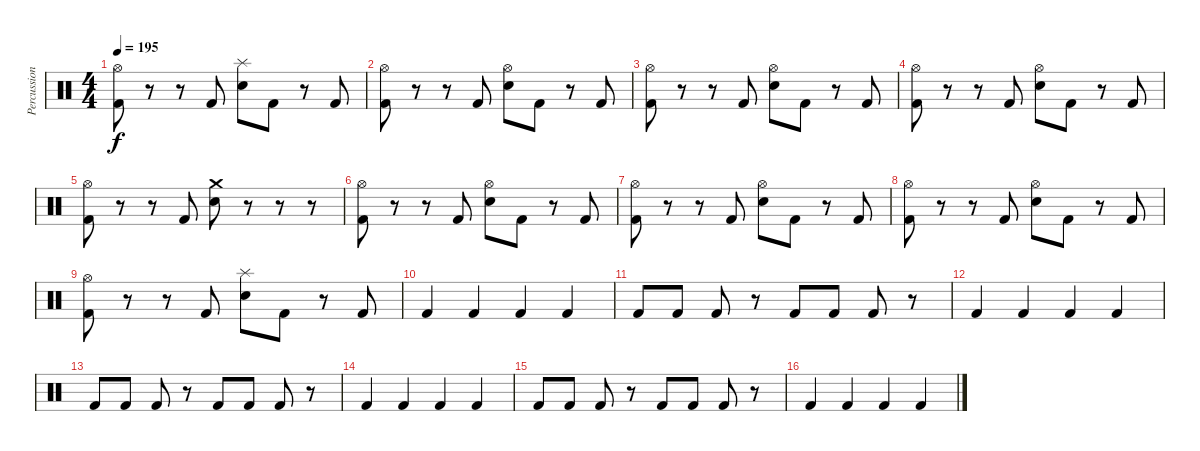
\track ("Percussion" "Percussion") {instrument percussion}
\staff {score}
\articulation defaults
\ts (4 4)
\tempo 195
\clef neutral
\ks c
("Hi-Hat (open)" "Kick (hit) 2").8{dy f} r.8 r.8 "Kick (hit) 2".8 ("Splash (hit)" "Snare (hit) 2").8 "Kick (hit) 2".8 r.8 "Kick (hit) 2".8 |
("Hi-Hat (open)" "Kick (hit) 2").8 r.8 r.8 "Kick (hit) 2".8 ("Hi-Hat (open)" "Snare (hit) 2").8 "Kick (hit) 2".8 r.8 "Kick (hit) 2".8 |
("Hi-Hat (open)" "Kick (hit) 2").8 r.8 r.8 "Kick (hit) 2".8 ("Hi-Hat (open)" "Snare (hit) 2").8 "Kick (hit) 2".8 r.8 "Kick (hit) 2".8 |
("Hi-Hat (open)" "Kick (hit) 2").8 r.8 r.8 "Kick (hit) 2".8 ("Hi-Hat (open)" "Snare (hit) 2").8 "Kick (hit) 2".8 r.8 "Kick (hit) 2".8 |
("Hi-Hat (open)" "Kick (hit) 2").8 r.8 r.8 "Kick (hit) 2".8 ("Crash medium (hit)" "Snare (hit) 2").8 r.8 r.8 r.8 |
("Hi-Hat (open)" "Kick (hit) 2").8 r.8 r.8 "Kick (hit) 2".8 ("Hi-Hat (open)" "Snare (hit) 2").8 "Kick (hit) 2".8 r.8 "Kick (hit) 2".8 |
("Hi-Hat (open)" "Kick (hit) 2").8 r.8 r.8 "Kick (hit) 2".8 ("Hi-Hat (open)" "Snare (hit) 2").8 "Kick (hit) 2".8 r.8 "Kick (hit) 2".8 |
("Hi-Hat (open)" "Kick (hit) 2").8 r.8 r.8 "Kick (hit) 2".8 ("Hi-Hat (open)" "Snare (hit) 2").8 "Kick (hit) 2".8 r.8 "Kick (hit) 2".8 |
("Hi-Hat (open)" "Kick (hit) 2").8 r.8 r.8 "Kick (hit) 2".8 ("Splash (hit)" "Snare (hit) 2").8 "Kick (hit) 2".8 r.8 "Kick (hit) 2".8 |
"Kick (hit) 2".4 "Kick (hit) 2".4 "Kick (hit) 2".4 "Kick (hit) 2".4 |
"Kick (hit) 2".8 "Kick (hit) 2".8 "Kick (hit) 2".8 r.8 "Kick (hit) 2".8 "Kick (hit) 2".8 "Kick (hit) 2".8 r.8 |
"Kick (hit) 2".4 "Kick (hit) 2".4 "Kick (hit) 2".4 "Kick (hit) 2".4 |
"Kick (hit) 2".8 "Kick (hit) 2".8 "Kick (hit) 2".8 r.8 "Kick (hit) 2".8 "Kick (hit) 2".8 "Kick (hit) 2".8 r.8 |
"Kick (hit) 2".4 "Kick (hit) 2".4 "Kick (hit) 2".4 "Kick (hit) 2".4 |
"Kick (hit) 2".8 "Kick (hit) 2".8 "Kick (hit) 2".8 r.8 "Kick (hit) 2".8 "Kick (hit) 2".8 "Kick (hit) 2".8 r.8 |
"Kick (hit) 2".4 "Kick (hit) 2".4 "Kick (hit) 2".4 "Kick (hit) 2".4
